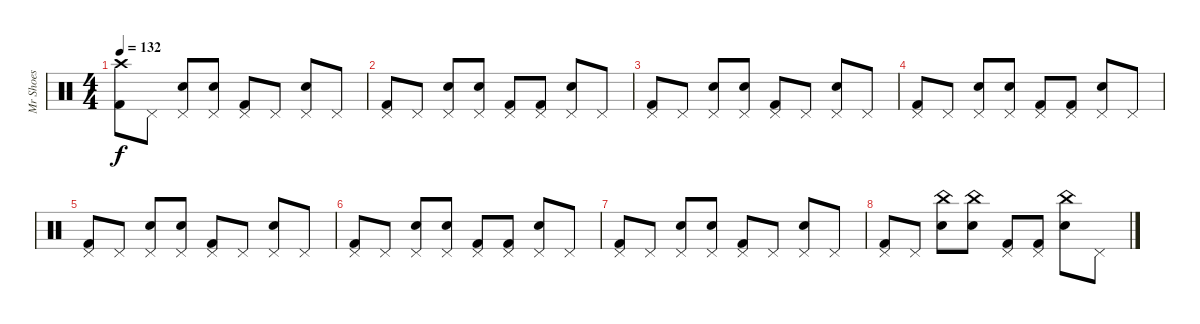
\track ("Mr Shoes" "Mr Shoes") {instrument percussion}
\staff {score}
\articulation defaults
\ts (4 4)
\tempo 132
\clef neutral
\ks c
("Kick (hit) 2" "Crash high (hit)").8{dy f} "Pedal Hi-Hat (hit)".8 ("Electric Snare (hit)" "Pedal Hi-Hat (hit)").8 ("Electric Snare (hit)" "Pedal Hi-Hat (hit)").8 ("Kick (hit) 2" "Pedal Hi-Hat (hit)").8 "Pedal Hi-Hat (hit)".8 ("Electric Snare (hit)" "Pedal Hi-Hat (hit)").8 "Pedal Hi-Hat (hit)".8 |
("Kick (hit) 2" "Pedal Hi-Hat (hit)").8 "Pedal Hi-Hat (hit)".8 ("Electric Snare (hit)" "Pedal Hi-Hat (hit)").8 ("Electric Snare (hit)" "Pedal Hi-Hat (hit)").8 ("Kick (hit) 2" "Pedal Hi-Hat (hit)").8 ("Kick (hit) 2" "Pedal Hi-Hat (hit)").8 ("Electric Snare (hit)" "Pedal Hi-Hat (hit)").8 "Pedal Hi-Hat (hit)".8 |
("Kick (hit) 2" "Pedal Hi-Hat (hit)").8 "Pedal Hi-Hat (hit)".8 ("Electric Snare (hit)" "Pedal Hi-Hat (hit)").8 ("Electric Snare (hit)" "Pedal Hi-Hat (hit)").8 ("Kick (hit) 2" "Pedal Hi-Hat (hit)").8 "Pedal Hi-Hat (hit)".8 ("Electric Snare (hit)" "Pedal Hi-Hat (hit)").8 "Pedal Hi-Hat (hit)".8 |
("Kick (hit) 2" "Pedal Hi-Hat (hit)").8 "Pedal Hi-Hat (hit)".8 ("Electric Snare (hit)" "Pedal Hi-Hat (hit)").8 ("Electric Snare (hit)" "Pedal Hi-Hat (hit)").8 ("Kick (hit) 2" "Pedal Hi-Hat (hit)").8 ("Kick (hit) 2" "Pedal Hi-Hat (hit)").8 ("Electric Snare (hit)" "Pedal Hi-Hat (hit)").8 "Pedal Hi-Hat (hit)".8 |
("Kick (hit) 2" "Pedal Hi-Hat (hit)").8 "Pedal Hi-Hat (hit)".8 ("Electric Snare (hit)" "Pedal Hi-Hat (hit)").8 ("Electric Snare (hit)" "Pedal Hi-Hat (hit)").8 ("Kick (hit) 2" "Pedal Hi-Hat (hit)").8 "Pedal Hi-Hat (hit)".8 ("Electric Snare (hit)" "Pedal Hi-Hat (hit)").8 "Pedal Hi-Hat (hit)".8 |
("Kick (hit) 2" "Pedal Hi-Hat (hit)").8 "Pedal Hi-Hat (hit)".8 ("Electric Snare (hit)" "Pedal Hi-Hat (hit)").8 ("Electric Snare (hit)" "Pedal Hi-Hat (hit)").8 ("Kick (hit) 2" "Pedal Hi-Hat (hit)").8 ("Kick (hit) 2" "Pedal Hi-Hat (hit)").8 ("Electric Snare (hit)" "Pedal Hi-Hat (hit)").8 "Pedal Hi-Hat (hit)".8 |
("Kick (hit) 2" "Pedal Hi-Hat (hit)").8 "Pedal Hi-Hat (hit)".8 ("Electric Snare (hit)" "Pedal Hi-Hat (hit)").8 ("Electric Snare (hit)" "Pedal Hi-Hat (hit)").8 ("Kick (hit) 2" "Pedal Hi-Hat (hit)").8 "Pedal Hi-Hat (hit)".8 ("Electric Snare (hit)" "Pedal Hi-Hat (hit)").8 "Pedal Hi-Hat (hit)".8 |
("Kick (hit) 2" "Pedal Hi-Hat (hit)").8 "Pedal Hi-Hat (hit)".8 ("Electric Snare (hit)" "China (hit)").8 ("Electric Snare (hit)" "China (hit)").8 ("Kick (hit) 2" "Pedal Hi-Hat (hit)").8 ("Kick (hit) 2" "Pedal Hi-Hat (hit)").8 ("Electric Snare (hit)" "China (hit)").8 "Pedal Hi-Hat (hit)".8
